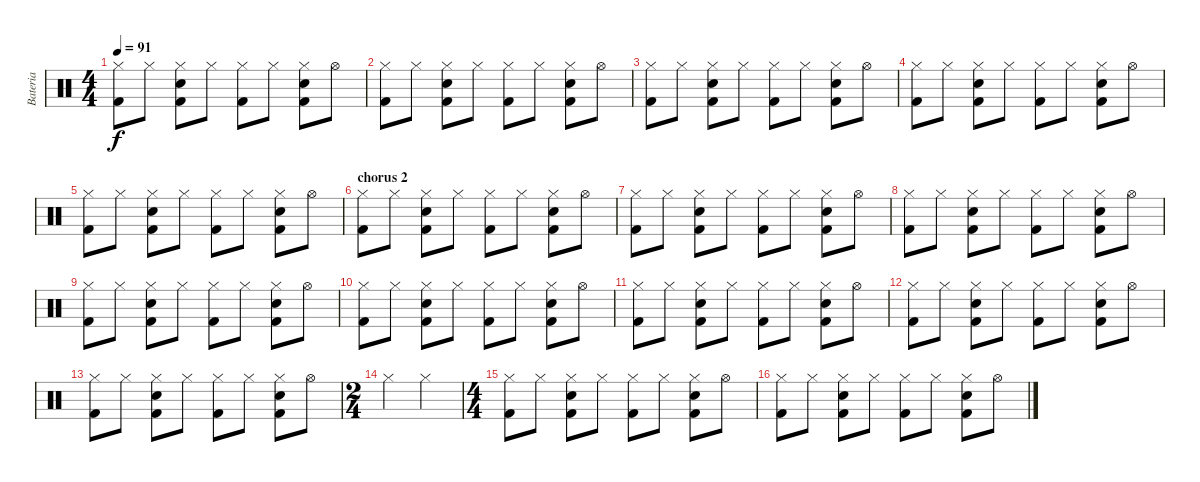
\track ("Bateria" "Bateria") {instrument percussion}
\staff {score}
\articulation defaults
\ts (4 4)
\tempo 91
\clef neutral
\ks c
("Hi-Hat (closed)" "Kick (hit) 2").8{dy f} "Hi-Hat (closed)".8 ("Hi-Hat (closed)" "Electric Snare (hit)" "Kick (hit) 2").8 "Hi-Hat (closed)".8 ("Hi-Hat (closed)" "Kick (hit) 2").8 "Hi-Hat (closed)".8 ("Hi-Hat (closed)" "Electric Snare (hit)" "Kick (hit) 2").8 "Hi-Hat (open)".8 |
("Hi-Hat (closed)" "Kick (hit) 2").8 "Hi-Hat (closed)".8 ("Hi-Hat (closed)" "Electric Snare (hit)" "Kick (hit) 2").8 "Hi-Hat (closed)".8 ("Hi-Hat (closed)" "Kick (hit) 2").8 "Hi-Hat (closed)".8 ("Hi-Hat (closed)" "Electric Snare (hit)" "Kick (hit) 2").8 "Hi-Hat (open)".8 |
("Hi-Hat (closed)" "Kick (hit) 2").8 "Hi-Hat (closed)".8 ("Hi-Hat (closed)" "Electric Snare (hit)" "Kick (hit) 2").8 "Hi-Hat (closed)".8 ("Hi-Hat (closed)" "Kick (hit) 2").8 "Hi-Hat (closed)".8 ("Hi-Hat (closed)" "Electric Snare (hit)" "Kick (hit) 2").8 "Hi-Hat (open)".8 |
("Hi-Hat (closed)" "Kick (hit) 2").8 "Hi-Hat (closed)".8 ("Hi-Hat (closed)" "Electric Snare (hit)" "Kick (hit) 2").8 "Hi-Hat (closed)".8 ("Hi-Hat (closed)" "Kick (hit) 2").8 "Hi-Hat (closed)".8 ("Hi-Hat (closed)" "Electric Snare (hit)" "Kick (hit) 2").8 "Hi-Hat (open)".8 |
("Hi-Hat (closed)" "Kick (hit) 2").8 "Hi-Hat (closed)".8 ("Hi-Hat (closed)" "Electric Snare (hit)" "Kick (hit) 2").8 "Hi-Hat (closed)".8 ("Hi-Hat (closed)" "Kick (hit) 2").8 "Hi-Hat (closed)".8 ("Hi-Hat (closed)" "Electric Snare (hit)" "Kick (hit) 2").8 "Hi-Hat (open)".8 |
\section ("" "chorus 2")
("Hi-Hat (closed)" "Kick (hit) 2").8 "Hi-Hat (closed)".8 ("Hi-Hat (closed)" "Electric Snare (hit)" "Kick (hit) 2").8 "Hi-Hat (closed)".8 ("Hi-Hat (closed)" "Kick (hit) 2").8 "Hi-Hat (closed)".8 ("Hi-Hat (closed)" "Electric Snare (hit)" "Kick (hit) 2").8 "Hi-Hat (open)".8 |
("Hi-Hat (closed)" "Kick (hit) 2").8 "Hi-Hat (closed)".8 ("Hi-Hat (closed)" "Electric Snare (hit)" "Kick (hit) 2").8 "Hi-Hat (closed)".8 ("Hi-Hat (closed)" "Kick (hit) 2").8 "Hi-Hat (closed)".8 ("Hi-Hat (closed)" "Electric Snare (hit)" "Kick (hit) 2").8 "Hi-Hat (open)".8 |
("Hi-Hat (closed)" "Kick (hit) 2").8 "Hi-Hat (closed)".8 ("Hi-Hat (closed)" "Electric Snare (hit)" "Kick (hit) 2").8 "Hi-Hat (closed)".8 ("Hi-Hat (closed)" "Kick (hit) 2").8 "Hi-Hat (closed)".8 ("Hi-Hat (closed)" "Electric Snare (hit)" "Kick (hit) 2").8 "Hi-Hat (open)".8 |
("Hi-Hat (closed)" "Kick (hit) 2").8 "Hi-Hat (closed)".8 ("Hi-Hat (closed)" "Electric Snare (hit)" "Kick (hit) 2").8 "Hi-Hat (closed)".8 ("Hi-Hat (closed)" "Kick (hit) 2").8 "Hi-Hat (closed)".8 ("Hi-Hat (closed)" "Electric Snare (hit)" "Kick (hit) 2").8 "Hi-Hat (open)".8 |
("Hi-Hat (closed)" "Kick (hit) 2").8 "Hi-Hat (closed)".8 ("Hi-Hat (closed)" "Electric Snare (hit)" "Kick (hit) 2").8 "Hi-Hat (closed)".8 ("Hi-Hat (closed)" "Kick (hit) 2").8 "Hi-Hat (closed)".8 ("Hi-Hat (closed)" "Electric Snare (hit)" "Kick (hit) 2").8 "Hi-Hat (open)".8 |
("Hi-Hat (closed)" "Kick (hit) 2").8 "Hi-Hat (closed)".8 ("Hi-Hat (closed)" "Electric Snare (hit)" "Kick (hit) 2").8 "Hi-Hat (closed)".8 ("Hi-Hat (closed)" "Kick (hit) 2").8 "Hi-Hat (closed)".8 ("Hi-Hat (closed)" "Electric Snare (hit)" "Kick (hit) 2").8 "Hi-Hat (open)".8 |
("Hi-Hat (closed)" "Kick (hit) 2").8 "Hi-Hat (closed)".8 ("Hi-Hat (closed)" "Electric Snare (hit)" "Kick (hit) 2").8 "Hi-Hat (closed)".8 ("Hi-Hat (closed)" "Kick (hit) 2").8 "Hi-Hat (closed)".8 ("Hi-Hat (closed)" "Electric Snare (hit)" "Kick (hit) 2").8 "Hi-Hat (open)".8 |
("Hi-Hat (closed)" "Kick (hit) 2").8 "Hi-Hat (closed)".8 ("Hi-Hat (closed)" "Electric Snare (hit)" "Kick (hit) 2").8 "Hi-Hat (closed)".8 ("Hi-Hat (closed)" "Kick (hit) 2").8 "Hi-Hat (closed)".8 ("Hi-Hat (closed)" "Electric Snare (hit)" "Kick (hit) 2").8 "Hi-Hat (open)".8 |
\ts (2 4)
"Hi-Hat (closed)".4 "Hi-Hat (closed)".4 |
\ts (4 4)
("Hi-Hat (closed)" "Kick (hit) 2").8 "Hi-Hat (closed)".8 ("Hi-Hat (closed)" "Electric Snare (hit)" "Kick (hit) 2").8 "Hi-Hat (closed)".8 ("Hi-Hat (closed)" "Kick (hit) 2").8 "Hi-Hat (closed)".8 ("Hi-Hat (closed)" "Electric Snare (hit)" "Kick (hit) 2").8 "Hi-Hat (open)".8 |
("Hi-Hat (closed)" "Kick (hit) 2").8 "Hi-Hat (closed)".8 ("Hi-Hat (closed)" "Electric Snare (hit)" "Kick (hit) 2").8 "Hi-Hat (closed)".8 ("Hi-Hat (closed)" "Kick (hit) 2").8 "Hi-Hat (closed)".8 ("Hi-Hat (closed)" "Electric Snare (hit)" "Kick (hit) 2").8 "Hi-Hat (open)".8
